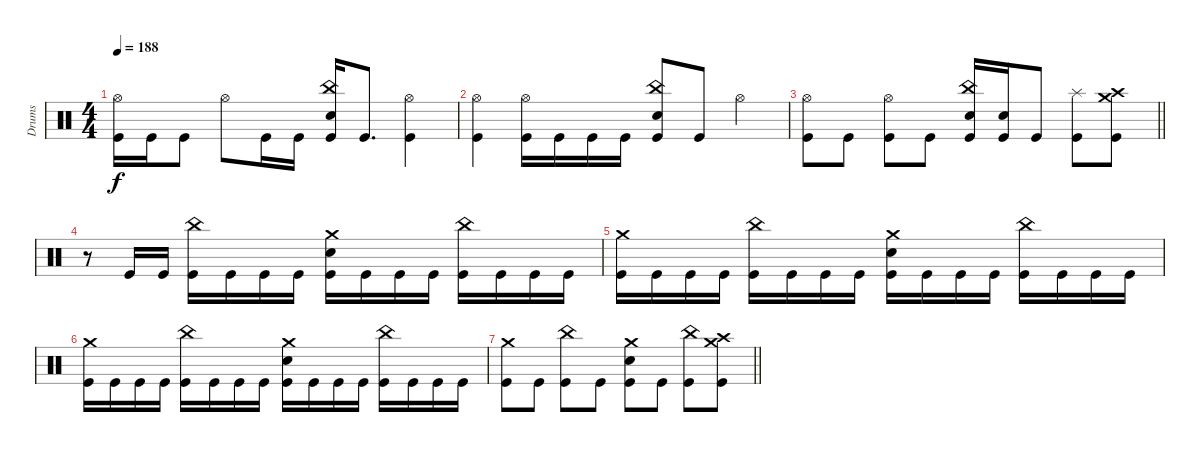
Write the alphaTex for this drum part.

\track ("Drums" "Drums") {instrument percussion}
\staff
\articulation defaults
\ts (4 4)
\tempo 188
\clef neutral
\ks c
("Hi-Hat (open)" "Kick (hit)").16{dy f} "Kick (hit)".16 "Kick (hit)".8 "Hi-Hat (open)".8 "Kick (hit)".16 "Kick (hit)".16 ("China (hit)" "Electric Snare (hit)" "Kick (hit)").16 "Kick (hit)".8{d} ("Hi-Hat (open)" "Kick (hit)").4 |
("Hi-Hat (open)" "Kick (hit)").4 ("Hi-Hat (open)" "Kick (hit)").16 "Kick (hit)".16 "Kick (hit)".16 "Kick (hit)".16 ("China (hit)" "Electric Snare (hit)" "Kick (hit)").8 "Kick (hit)".8 "Hi-Hat (open)".4 |
\barLineRight lightlight
("Hi-Hat (open)" "Kick (hit)").8 "Kick (hit)".8 ("Hi-Hat (open)" "Kick (hit)").8 "Kick (hit)".8 ("China (hit)" "Electric Snare (hit)" "Kick (hit)").16 ("Electric Snare (hit)" "Kick (hit)").16 "Kick (hit)".8 ("Splash (hit)" "Kick (hit)").8 ("Crash high (hit)" "Crash medium (hit)" "Kick (hit)").8 |
r.8 "Kick (hit)".16 "Kick (hit)".16 ("China (hit)" "Kick (hit)").16 "Kick (hit)".16 "Kick (hit)".16 "Kick (hit)".16 ("Crash medium (hit)" "Electric Snare (hit)" "Kick (hit)").16 "Kick (hit)".16 "Kick (hit)".16 "Kick (hit)".16 ("China (hit)" "Kick (hit)").16 "Kick (hit)".16 "Kick (hit)".16 "Kick (hit)".16 |
("Crash medium (hit)" "Kick (hit)").16 "Kick (hit)".16 "Kick (hit)".16 "Kick (hit)".16 ("China (hit)" "Kick (hit)").16 "Kick (hit)".16 "Kick (hit)".16 "Kick (hit)".16 ("Crash medium (hit)" "Electric Snare (hit)" "Kick (hit)").16 "Kick (hit)".16 "Kick (hit)".16 "Kick (hit)".16 ("China (hit)" "Kick (hit)").16 "Kick (hit)".16 "Kick (hit)".16 "Kick (hit)".16 |
("Crash medium (hit)" "Kick (hit)").16 "Kick (hit)".16 "Kick (hit)".16 "Kick (hit)".16 ("China (hit)" "Kick (hit)").16 "Kick (hit)".16 "Kick (hit)".16 "Kick (hit)".16 ("Crash medium (hit)" "Electric Snare (hit)" "Kick (hit)").16 "Kick (hit)".16 "Kick (hit)".16 "Kick (hit)".16 ("China (hit)" "Kick (hit)").16 "Kick (hit)".16 "Kick (hit)".16 "Kick (hit)".16 |
\barLineRight lightlight
("Crash medium (hit)" "Kick (hit)").8 "Kick (hit)".8 ("China (hit)" "Kick (hit)").8 "Kick (hit)".8 ("Crash medium (hit)" "Electric Snare (hit)" "Kick (hit)").8 "Kick (hit)".8 ("China (hit)" "Kick (hit)").8 ("Crash high (hit)" "Crash medium (hit)" "Kick (hit)").8
